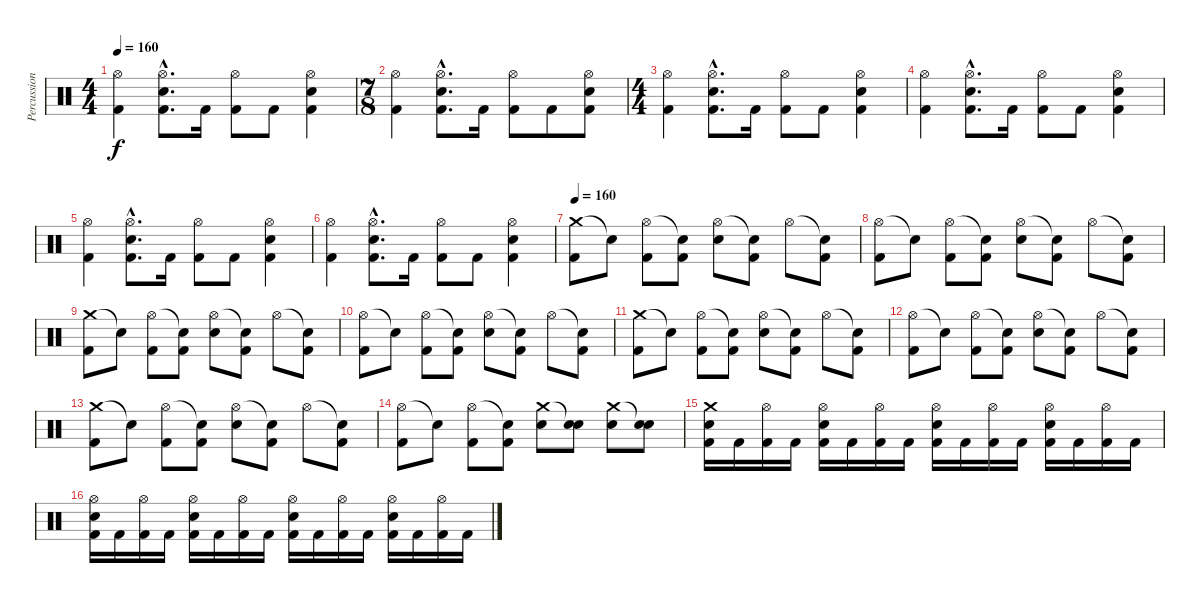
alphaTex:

\track ("Percussion" "Percussion") {instrument percussion}
\staff {score}
\articulation defaults
\ts (4 4)
\tempo 160
\clef neutral
\ks c
("Hi-Hat (open)" "Kick (hit) 2").4{dy f} ("Hi-Hat (open)"{hac} "Electric Snare (hit)"{hac} "Kick (hit) 2"{hac}).8{d} "Kick (hit) 2".16 ("Hi-Hat (open)" "Kick (hit) 2").8 "Kick (hit) 2".8 ("Hi-Hat (open)" "Electric Snare (hit)" "Kick (hit) 2").4 |
\ts (7 8)
("Hi-Hat (open)" "Kick (hit) 2").4 ("Hi-Hat (open)"{hac} "Electric Snare (hit)"{hac} "Kick (hit) 2"{hac}).8{d} "Kick (hit) 2".16 ("Hi-Hat (open)" "Kick (hit) 2").8 "Kick (hit) 2".8 ("Hi-Hat (open)" "Electric Snare (hit)" "Kick (hit) 2").8 |
\ts (4 4)
("Hi-Hat (open)" "Kick (hit) 2").4 ("Hi-Hat (open)"{hac} "Electric Snare (hit)"{hac} "Kick (hit) 2"{hac}).8{d} "Kick (hit) 2".16 ("Hi-Hat (open)" "Kick (hit) 2").8 "Kick (hit) 2".8 ("Hi-Hat (open)" "Electric Snare (hit)" "Kick (hit) 2").4 |
("Hi-Hat (open)" "Kick (hit) 2").4 ("Hi-Hat (open)"{hac} "Electric Snare (hit)"{hac} "Kick (hit) 2"{hac}).8{d} "Kick (hit) 2".16 ("Hi-Hat (open)" "Kick (hit) 2").8 "Kick (hit) 2".8 ("Hi-Hat (open)" "Electric Snare (hit)" "Kick (hit) 2").4 |
("Hi-Hat (open)" "Kick (hit) 2").4 ("Hi-Hat (open)"{hac} "Electric Snare (hit)"{hac} "Kick (hit) 2"{hac}).8{d} "Kick (hit) 2".16 ("Hi-Hat (open)" "Kick (hit) 2").8 "Kick (hit) 2".8 ("Hi-Hat (open)" "Electric Snare (hit)" "Kick (hit) 2").4 |
("Hi-Hat (open)" "Kick (hit) 2").4 ("Hi-Hat (open)"{hac} "Electric Snare (hit)"{hac} "Kick (hit) 2"{hac}).8{d} "Kick (hit) 2".16 ("Hi-Hat (open)" "Kick (hit) 2").8 "Kick (hit) 2".8 ("Hi-Hat (open)" "Electric Snare (hit)" "Kick (hit) 2").4 |
\tempo 160
("Crash medium (hit)" "Kick (hit) 2").8 "Snare (hit)"{t}.8 ("Hi-Hat (open)" "Kick (hit) 2").8 ("Snare (hit)"{t} "Kick (hit) 2").8 ("Hi-Hat (open)" "Electric Snare (hit)").8 ("Snare (hit)"{t} "Kick (hit) 2").8 "Hi-Hat (open)".8 ("Snare (hit)"{t} "Kick (hit) 2").8 |
("Hi-Hat (open)" "Kick (hit) 2").8 "Snare (hit)"{t}.8 ("Hi-Hat (open)" "Kick (hit) 2").8 ("Snare (hit)"{t} "Kick (hit) 2").8 ("Hi-Hat (open)" "Electric Snare (hit)").8 ("Snare (hit)"{t} "Kick (hit) 2").8 "Hi-Hat (open)".8 ("Snare (hit)"{t} "Kick (hit) 2").8 |
("Crash medium (hit)" "Kick (hit) 2").8 "Snare (hit)"{t}.8 ("Hi-Hat (open)" "Kick (hit) 2").8 ("Snare (hit)"{t} "Kick (hit) 2").8 ("Hi-Hat (open)" "Electric Snare (hit)").8 ("Snare (hit)"{t} "Kick (hit) 2").8 "Hi-Hat (open)".8 ("Snare (hit)"{t} "Kick (hit) 2").8 |
("Hi-Hat (open)" "Kick (hit) 2").8 "Snare (hit)"{t}.8 ("Hi-Hat (open)" "Kick (hit) 2").8 ("Snare (hit)"{t} "Kick (hit) 2").8 ("Hi-Hat (open)" "Electric Snare (hit)").8 ("Snare (hit)"{t} "Kick (hit) 2").8 "Hi-Hat (open)".8 ("Snare (hit)"{t} "Kick (hit) 2").8 |
("Crash medium (hit)" "Kick (hit) 2").8 "Snare (hit)"{t}.8 ("Hi-Hat (open)" "Kick (hit) 2").8 ("Snare (hit)"{t} "Kick (hit) 2").8 ("Hi-Hat (open)" "Electric Snare (hit)").8 ("Snare (hit)"{t} "Kick (hit) 2").8 "Hi-Hat (open)".8 ("Snare (hit)"{t} "Kick (hit) 2").8 |
("Hi-Hat (open)" "Kick (hit) 2").8 "Snare (hit)"{t}.8 ("Hi-Hat (open)" "Kick (hit) 2").8 ("Snare (hit)"{t} "Kick (hit) 2").8 ("Hi-Hat (open)" "Electric Snare (hit)").8 ("Snare (hit)"{t} "Kick (hit) 2").8 "Hi-Hat (open)".8 ("Snare (hit)"{t} "Kick (hit) 2").8 |
("Crash medium (hit)" "Kick (hit) 2").8 "Snare (hit)"{t}.8 ("Hi-Hat (open)" "Kick (hit) 2").8 ("Snare (hit)"{t} "Kick (hit) 2").8 ("Hi-Hat (open)" "Electric Snare (hit)").8 ("Snare (hit)"{t} "Kick (hit) 2").8 "Hi-Hat (open)".8 ("Snare (hit)"{t} "Kick (hit) 2").8 |
("Hi-Hat (open)" "Kick (hit) 2").8 "Snare (hit)"{t}.8 ("Hi-Hat (open)" "Kick (hit) 2").8 ("Snare (hit)"{t} "Kick (hit) 2").8 ("Crash medium (hit)" "Electric Snare (hit)").8 ("Snare (hit)"{t} "Electric Snare (hit)").8 ("Crash medium (hit)" "Electric Snare (hit)").8 ("Snare (hit)"{t} "Electric Snare (hit)").8 |
("Crash medium (hit)" "Electric Snare (hit)" "Kick (hit) 2").16 "Kick (hit) 2".16 ("Hi-Hat (open)" "Kick (hit) 2").16 "Kick (hit) 2".16 ("Hi-Hat (open)" "Electric Snare (hit)" "Kick (hit) 2").16 "Kick (hit) 2".16 ("Hi-Hat (open)" "Kick (hit) 2").16 "Kick (hit) 2".16 ("Hi-Hat (open)" "Electric Snare (hit)" "Kick (hit) 2").16 "Kick (hit) 2".16 ("Hi-Hat (open)" "Kick (hit) 2").16 "Kick (hit) 2".16 ("Hi-Hat (open)" "Electric Snare (hit)" "Kick (hit) 2").16 "Kick (hit) 2".16 ("Hi-Hat (open)" "Kick (hit) 2").16 "Kick (hit) 2".16 |
("Hi-Hat (open)" "Electric Snare (hit)" "Kick (hit) 2").16 "Kick (hit) 2".16 ("Hi-Hat (open)" "Kick (hit) 2").16 "Kick (hit) 2".16 ("Hi-Hat (open)" "Electric Snare (hit)" "Kick (hit) 2").16 "Kick (hit) 2".16 ("Hi-Hat (open)" "Kick (hit) 2").16 "Kick (hit) 2".16 ("Hi-Hat (open)" "Electric Snare (hit)" "Kick (hit) 2").16 "Kick (hit) 2".16 ("Hi-Hat (open)" "Kick (hit) 2").16 "Kick (hit) 2".16 ("Hi-Hat (open)" "Electric Snare (hit)" "Kick (hit) 2").16 "Kick (hit) 2".16 ("Hi-Hat (open)" "Kick (hit) 2").16 "Kick (hit) 2".16
